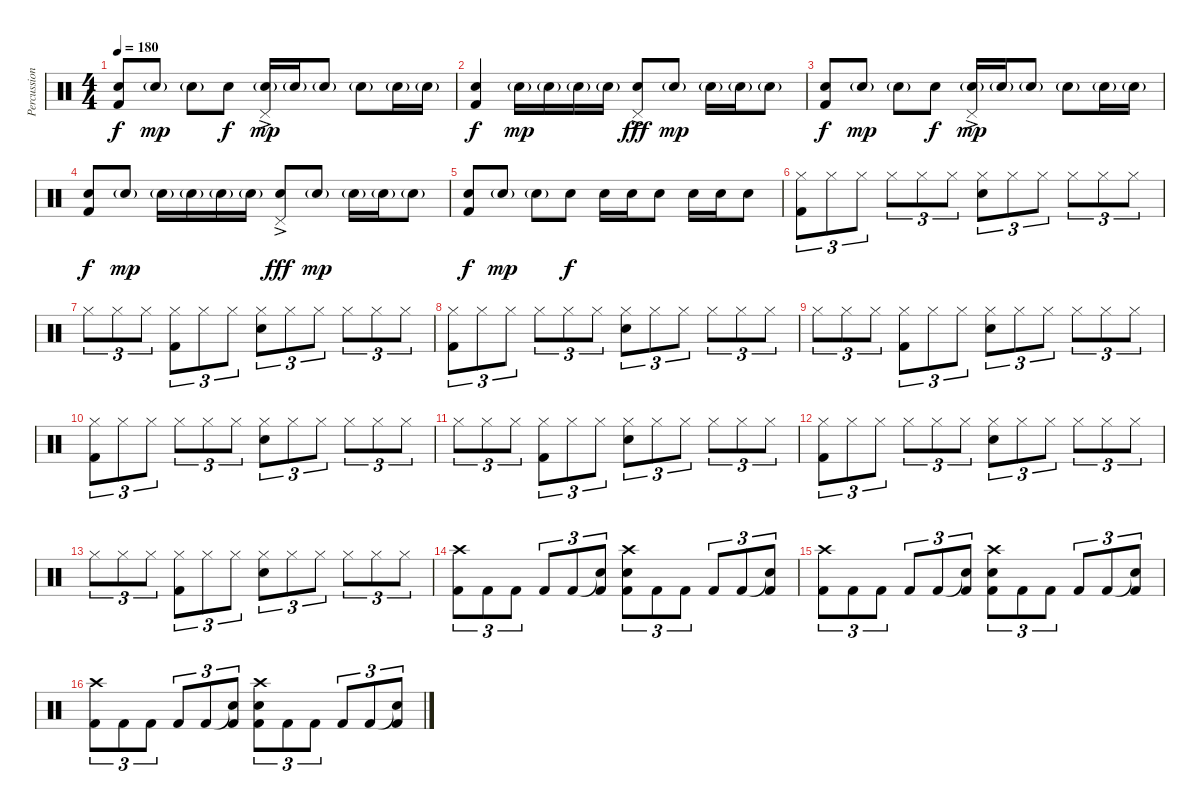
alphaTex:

\track ("Percussion" "Percussion") {instrument percussion}
\staff {score}
\articulation defaults
\ts (4 4)
\tempo 180
\clef neutral
\ks c
("Electric Snare (hit)" "Kick (hit) 2").8{dy f} "Electric Snare (hit)"{g}.8{dy mp} "Electric Snare (hit)"{g}.8 "Electric Snare (hit)".8{dy f} ("Pedal Hi-Hat (hit)"{ac} "Electric Snare (hit)"{g}).16{dy mp} "Electric Snare (hit)"{g}.16 "Electric Snare (hit)"{g}.8 "Electric Snare (hit)"{g}.8 "Electric Snare (hit)"{g}.16 "Electric Snare (hit)"{g}.16 |
("Electric Snare (hit)" "Kick (hit) 2").4{dy f} "Electric Snare (hit)"{g}.16{dy mp} "Electric Snare (hit)"{g}.16 "Electric Snare (hit)"{g}.16 "Electric Snare (hit)"{g}.16 ("Pedal Hi-Hat (hit)"{ac} "Electric Snare (hit)").8{dy fff} "Electric Snare (hit)"{g}.8{dy mp} "Electric Snare (hit)"{g}.16 "Electric Snare (hit)"{g}.16 "Electric Snare (hit)"{g}.8 |
("Electric Snare (hit)" "Kick (hit) 2").8{dy f} "Electric Snare (hit)"{g}.8{dy mp} "Electric Snare (hit)"{g}.8 "Electric Snare (hit)".8{dy f} ("Pedal Hi-Hat (hit)"{ac} "Electric Snare (hit)"{g}).16{dy mp} "Electric Snare (hit)"{g}.16 "Electric Snare (hit)"{g}.8 "Electric Snare (hit)"{g}.8 "Electric Snare (hit)"{g}.16 "Electric Snare (hit)"{g}.16 |
("Electric Snare (hit)" "Kick (hit) 2").8{dy f} "Electric Snare (hit)"{g}.8{dy mp} "Electric Snare (hit)"{g}.16 "Electric Snare (hit)"{g}.16 "Electric Snare (hit)"{g}.16 "Electric Snare (hit)"{g}.16 ("Pedal Hi-Hat (hit)"{ac} "Electric Snare (hit)").8{dy fff} "Electric Snare (hit)"{g}.8{dy mp} "Electric Snare (hit)"{g}.16 "Electric Snare (hit)"{g}.16 "Electric Snare (hit)"{g}.8 |
("Electric Snare (hit)" "Kick (hit) 2").8{dy f} "Electric Snare (hit)"{g}.8{dy mp} "Electric Snare (hit)"{g}.8 "Electric Snare (hit)".8{dy f} "Electric Snare (hit)".16 "Electric Snare (hit)".16 "Electric Snare (hit)".8 "Electric Snare (hit)".16 "Electric Snare (hit)".16 "Electric Snare (hit)".8 |
("Hi-Hat (closed)" "Kick (hit) 2").8{tu (3 2)} "Hi-Hat (closed)".8{tu (3 2)} "Hi-Hat (closed)".8{tu (3 2)} "Hi-Hat (closed)".8{tu (3 2)} "Hi-Hat (closed)".8{tu (3 2)} "Hi-Hat (closed)".8{tu (3 2)} ("Hi-Hat (closed)" "Snare (hit) 2").8{tu (3 2)} "Hi-Hat (closed)".8{tu (3 2)} "Hi-Hat (closed)".8{tu (3 2)} "Hi-Hat (closed)".8{tu (3 2)} "Hi-Hat (closed)".8{tu (3 2)} "Hi-Hat (closed)".8{tu (3 2)} |
"Hi-Hat (closed)".8{tu (3 2)} "Hi-Hat (closed)".8{tu (3 2)} "Hi-Hat (closed)".8{tu (3 2)} ("Hi-Hat (closed)" "Kick (hit) 2").8{tu (3 2)} "Hi-Hat (closed)".8{tu (3 2)} "Hi-Hat (closed)".8{tu (3 2)} ("Hi-Hat (closed)" "Snare (hit) 2").8{tu (3 2)} "Hi-Hat (closed)".8{tu (3 2)} "Hi-Hat (closed)".8{tu (3 2)} "Hi-Hat (closed)".8{tu (3 2)} "Hi-Hat (closed)".8{tu (3 2)} "Hi-Hat (closed)".8{tu (3 2)} |
("Hi-Hat (closed)" "Kick (hit) 2").8{tu (3 2)} "Hi-Hat (closed)".8{tu (3 2)} "Hi-Hat (closed)".8{tu (3 2)} "Hi-Hat (closed)".8{tu (3 2)} "Hi-Hat (closed)".8{tu (3 2)} "Hi-Hat (closed)".8{tu (3 2)} ("Hi-Hat (closed)" "Snare (hit) 2").8{tu (3 2)} "Hi-Hat (closed)".8{tu (3 2)} "Hi-Hat (closed)".8{tu (3 2)} "Hi-Hat (closed)".8{tu (3 2)} "Hi-Hat (closed)".8{tu (3 2)} "Hi-Hat (closed)".8{tu (3 2)} |
"Hi-Hat (closed)".8{tu (3 2)} "Hi-Hat (closed)".8{tu (3 2)} "Hi-Hat (closed)".8{tu (3 2)} ("Hi-Hat (closed)" "Kick (hit) 2").8{tu (3 2)} "Hi-Hat (closed)".8{tu (3 2)} "Hi-Hat (closed)".8{tu (3 2)} ("Hi-Hat (closed)" "Snare (hit) 2").8{tu (3 2)} "Hi-Hat (closed)".8{tu (3 2)} "Hi-Hat (closed)".8{tu (3 2)} "Hi-Hat (closed)".8{tu (3 2)} "Hi-Hat (closed)".8{tu (3 2)} "Hi-Hat (closed)".8{tu (3 2)} |
("Hi-Hat (closed)" "Kick (hit) 2").8{tu (3 2)} "Hi-Hat (closed)".8{tu (3 2)} "Hi-Hat (closed)".8{tu (3 2)} "Hi-Hat (closed)".8{tu (3 2)} "Hi-Hat (closed)".8{tu (3 2)} "Hi-Hat (closed)".8{tu (3 2)} ("Hi-Hat (closed)" "Snare (hit) 2").8{tu (3 2)} "Hi-Hat (closed)".8{tu (3 2)} "Hi-Hat (closed)".8{tu (3 2)} "Hi-Hat (closed)".8{tu (3 2)} "Hi-Hat (closed)".8{tu (3 2)} "Hi-Hat (closed)".8{tu (3 2)} |
"Hi-Hat (closed)".8{tu (3 2)} "Hi-Hat (closed)".8{tu (3 2)} "Hi-Hat (closed)".8{tu (3 2)} ("Hi-Hat (closed)" "Kick (hit) 2").8{tu (3 2)} "Hi-Hat (closed)".8{tu (3 2)} "Hi-Hat (closed)".8{tu (3 2)} ("Hi-Hat (closed)" "Snare (hit) 2").8{tu (3 2)} "Hi-Hat (closed)".8{tu (3 2)} "Hi-Hat (closed)".8{tu (3 2)} "Hi-Hat (closed)".8{tu (3 2)} "Hi-Hat (closed)".8{tu (3 2)} "Hi-Hat (closed)".8{tu (3 2)} |
("Hi-Hat (closed)" "Kick (hit) 2").8{tu (3 2)} "Hi-Hat (closed)".8{tu (3 2)} "Hi-Hat (closed)".8{tu (3 2)} "Hi-Hat (closed)".8{tu (3 2)} "Hi-Hat (closed)".8{tu (3 2)} "Hi-Hat (closed)".8{tu (3 2)} ("Hi-Hat (closed)" "Snare (hit) 2").8{tu (3 2)} "Hi-Hat (closed)".8{tu (3 2)} "Hi-Hat (closed)".8{tu (3 2)} "Hi-Hat (closed)".8{tu (3 2)} "Hi-Hat (closed)".8{tu (3 2)} "Hi-Hat (closed)".8{tu (3 2)} |
"Hi-Hat (closed)".8{tu (3 2)} "Hi-Hat (closed)".8{tu (3 2)} "Hi-Hat (closed)".8{tu (3 2)} ("Hi-Hat (closed)" "Kick (hit) 2").8{tu (3 2)} "Hi-Hat (closed)".8{tu (3 2)} "Hi-Hat (closed)".8{tu (3 2)} ("Hi-Hat (closed)" "Snare (hit) 2").8{tu (3 2)} "Hi-Hat (closed)".8{tu (3 2)} "Hi-Hat (closed)".8{tu (3 2)} "Hi-Hat (closed)".8{tu (3 2)} "Hi-Hat (closed)".8{tu (3 2)} "Hi-Hat (closed)".8{tu (3 2)} |
("Crash high (hit)" "Kick (hit) 2").8{tu (3 2)} "Kick (hit) 2".8{tu (3 2)} "Kick (hit) 2".8{tu (3 2)} "Kick (hit) 2".8{tu (3 2)} "Kick (hit) 2".8{tu (3 2)} ("Snare (hit)"{t} "Kick (hit) 2").8{tu (3 2)} ("Crash high (hit)" "Snare (hit) 2" "Kick (hit) 2").8{tu (3 2)} "Kick (hit) 2".8{tu (3 2)} "Kick (hit) 2".8{tu (3 2)} "Kick (hit) 2".8{tu (3 2)} "Kick (hit) 2".8{tu (3 2)} ("Snare (hit)"{t} "Kick (hit) 2").8{tu (3 2)} |
("Crash high (hit)" "Kick (hit) 2").8{tu (3 2)} "Kick (hit) 2".8{tu (3 2)} "Kick (hit) 2".8{tu (3 2)} "Kick (hit) 2".8{tu (3 2)} "Kick (hit) 2".8{tu (3 2)} ("Snare (hit)"{t} "Kick (hit) 2").8{tu (3 2)} ("Crash high (hit)" "Snare (hit) 2" "Kick (hit) 2").8{tu (3 2)} "Kick (hit) 2".8{tu (3 2)} "Kick (hit) 2".8{tu (3 2)} "Kick (hit) 2".8{tu (3 2)} "Kick (hit) 2".8{tu (3 2)} ("Snare (hit)"{t} "Kick (hit) 2").8{tu (3 2)} |
("Crash high (hit)" "Kick (hit) 2").8{tu (3 2)} "Kick (hit) 2".8{tu (3 2)} "Kick (hit) 2".8{tu (3 2)} "Kick (hit) 2".8{tu (3 2)} "Kick (hit) 2".8{tu (3 2)} ("Snare (hit)"{t} "Kick (hit) 2").8{tu (3 2)} ("Crash high (hit)" "Snare (hit) 2" "Kick (hit) 2").8{tu (3 2)} "Kick (hit) 2".8{tu (3 2)} "Kick (hit) 2".8{tu (3 2)} "Kick (hit) 2".8{tu (3 2)} "Kick (hit) 2".8{tu (3 2)} ("Snare (hit)"{t} "Kick (hit) 2").8{tu (3 2)}
